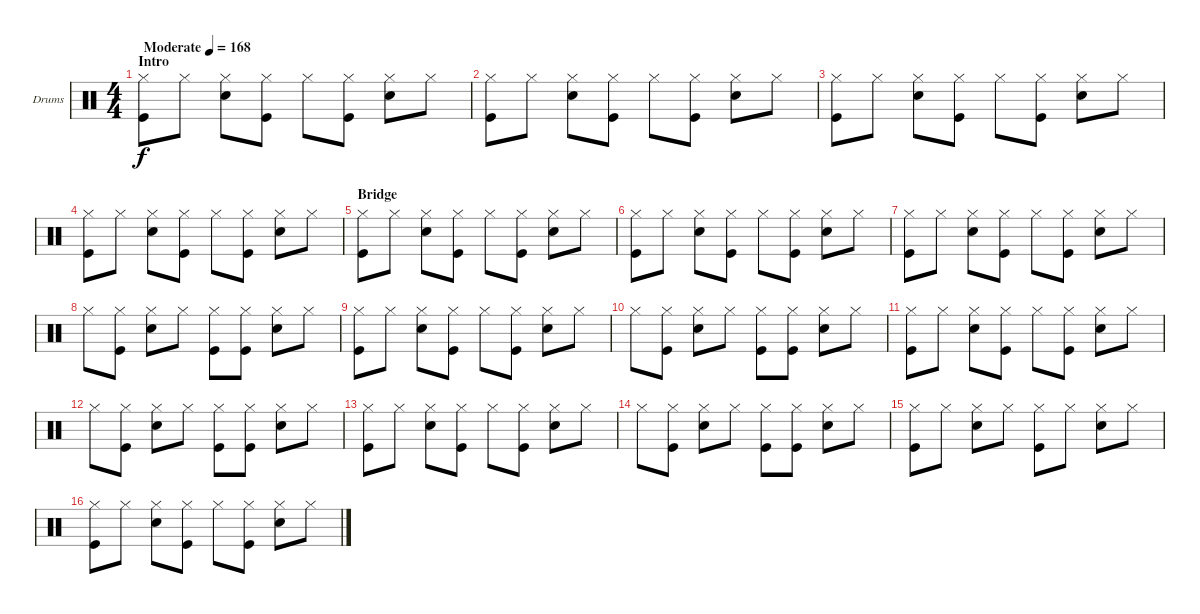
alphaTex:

\bracketExtendMode groupsimilarinstruments
\firstSystemTrackNameOrientation horizontal
\otherSystemsTrackNameOrientation horizontal
\track ("Drumkit" "Drums") {instrument percussion}
\staff {score}
\articulation defaults
\ts (4 4)
\beaming (8 2 2 2 2)
\section ("" "Intro")
\tempo (168 "Moderate")
\clef neutral
\ks c
("Kick (hit)" "Hi-Hat (closed)").8{dy f} "Hi-Hat (closed)".8 ("Snare (hit) 2" "Hi-Hat (closed)").8 ("Kick (hit)" "Hi-Hat (closed)").8 "Hi-Hat (closed)".8 ("Kick (hit)" "Hi-Hat (closed)").8 ("Snare (hit) 2" "Hi-Hat (closed)").8 "Hi-Hat (closed)".8 |
("Kick (hit)" "Hi-Hat (closed)").8 "Hi-Hat (closed)".8 ("Snare (hit) 2" "Hi-Hat (closed)").8 ("Kick (hit)" "Hi-Hat (closed)").8 "Hi-Hat (closed)".8 ("Kick (hit)" "Hi-Hat (closed)").8 ("Snare (hit) 2" "Hi-Hat (closed)").8 "Hi-Hat (closed)".8 |
("Kick (hit)" "Hi-Hat (closed)").8 "Hi-Hat (closed)".8 ("Snare (hit) 2" "Hi-Hat (closed)").8 ("Kick (hit)" "Hi-Hat (closed)").8 "Hi-Hat (closed)".8 ("Kick (hit)" "Hi-Hat (closed)").8 ("Snare (hit) 2" "Hi-Hat (closed)").8 "Hi-Hat (closed)".8 |
("Kick (hit)" "Hi-Hat (closed)").8 "Hi-Hat (closed)".8 ("Snare (hit) 2" "Hi-Hat (closed)").8 ("Kick (hit)" "Hi-Hat (closed)").8 "Hi-Hat (closed)".8 ("Kick (hit)" "Hi-Hat (closed)").8 ("Snare (hit) 2" "Hi-Hat (closed)").8 "Hi-Hat (closed)".8 |
\section ("" "Bridge")
("Kick (hit)" "Hi-Hat (closed)").8 "Hi-Hat (closed)".8 ("Snare (hit) 2" "Hi-Hat (closed)").8 ("Kick (hit)" "Hi-Hat (closed)").8 "Hi-Hat (closed)".8 ("Kick (hit)" "Hi-Hat (closed)").8 ("Snare (hit) 2" "Hi-Hat (closed)").8 "Hi-Hat (closed)".8 |
("Kick (hit)" "Hi-Hat (closed)").8 "Hi-Hat (closed)".8 ("Snare (hit) 2" "Hi-Hat (closed)").8 ("Kick (hit)" "Hi-Hat (closed)").8 "Hi-Hat (closed)".8 ("Kick (hit)" "Hi-Hat (closed)").8 ("Snare (hit) 2" "Hi-Hat (closed)").8 "Hi-Hat (closed)".8 |
("Kick (hit)" "Hi-Hat (closed)").8 "Hi-Hat (closed)".8 ("Snare (hit) 2" "Hi-Hat (closed)").8 ("Kick (hit)" "Hi-Hat (closed)").8 "Hi-Hat (closed)".8 ("Kick (hit)" "Hi-Hat (closed)").8 ("Snare (hit) 2" "Hi-Hat (closed)").8 "Hi-Hat (closed)".8 |
"Hi-Hat (closed)".8 ("Hi-Hat (closed)" "Kick (hit)").8 ("Snare (hit) 2" "Hi-Hat (closed)").8 "Hi-Hat (closed)".8 ("Hi-Hat (closed)" "Kick (hit)").8 ("Kick (hit)" "Hi-Hat (closed)").8 ("Snare (hit) 2" "Hi-Hat (closed)").8 "Hi-Hat (closed)".8 |
("Kick (hit)" "Hi-Hat (closed)").8 "Hi-Hat (closed)".8 ("Snare (hit) 2" "Hi-Hat (closed)").8 ("Kick (hit)" "Hi-Hat (closed)").8 "Hi-Hat (closed)".8 ("Kick (hit)" "Hi-Hat (closed)").8 ("Snare (hit) 2" "Hi-Hat (closed)").8 "Hi-Hat (closed)".8 |
"Hi-Hat (closed)".8 ("Hi-Hat (closed)" "Kick (hit)").8 ("Snare (hit) 2" "Hi-Hat (closed)").8 "Hi-Hat (closed)".8 ("Hi-Hat (closed)" "Kick (hit)").8 ("Kick (hit)" "Hi-Hat (closed)").8 ("Snare (hit) 2" "Hi-Hat (closed)").8 "Hi-Hat (closed)".8 |
("Kick (hit)" "Hi-Hat (closed)").8 "Hi-Hat (closed)".8 ("Snare (hit) 2" "Hi-Hat (closed)").8 ("Kick (hit)" "Hi-Hat (closed)").8 "Hi-Hat (closed)".8 ("Kick (hit)" "Hi-Hat (closed)").8 ("Snare (hit) 2" "Hi-Hat (closed)").8 "Hi-Hat (closed)".8 |
"Hi-Hat (closed)".8 ("Hi-Hat (closed)" "Kick (hit)").8 ("Snare (hit) 2" "Hi-Hat (closed)").8 "Hi-Hat (closed)".8 ("Hi-Hat (closed)" "Kick (hit)").8 ("Kick (hit)" "Hi-Hat (closed)").8 ("Snare (hit) 2" "Hi-Hat (closed)").8 "Hi-Hat (closed)".8 |
("Kick (hit)" "Hi-Hat (closed)").8 "Hi-Hat (closed)".8 ("Snare (hit) 2" "Hi-Hat (closed)").8 ("Kick (hit)" "Hi-Hat (closed)").8 "Hi-Hat (closed)".8 ("Kick (hit)" "Hi-Hat (closed)").8 ("Snare (hit) 2" "Hi-Hat (closed)").8 "Hi-Hat (closed)".8 |
"Hi-Hat (closed)".8 ("Hi-Hat (closed)" "Kick (hit)").8 ("Snare (hit) 2" "Hi-Hat (closed)").8 "Hi-Hat (closed)".8 ("Hi-Hat (closed)" "Kick (hit)").8 ("Kick (hit)" "Hi-Hat (closed)").8 ("Snare (hit) 2" "Hi-Hat (closed)").8 "Hi-Hat (closed)".8 |
("Kick (hit)" "Hi-Hat (closed)").8 "Hi-Hat (closed)".8 ("Snare (hit) 2" "Hi-Hat (closed)").8 "Hi-Hat (closed)".8 ("Hi-Hat (closed)" "Kick (hit)").8 "Hi-Hat (closed)".8 ("Snare (hit) 2" "Hi-Hat (closed)").8 "Hi-Hat (closed)".8 |
("Kick (hit)" "Hi-Hat (closed)").8 "Hi-Hat (closed)".8 ("Snare (hit) 2" "Hi-Hat (closed)").8 ("Kick (hit)" "Hi-Hat (closed)").8 "Hi-Hat (closed)".8 ("Kick (hit)" "Hi-Hat (closed)").8 ("Snare (hit) 2" "Hi-Hat (closed)").8 "Hi-Hat (closed)".8
